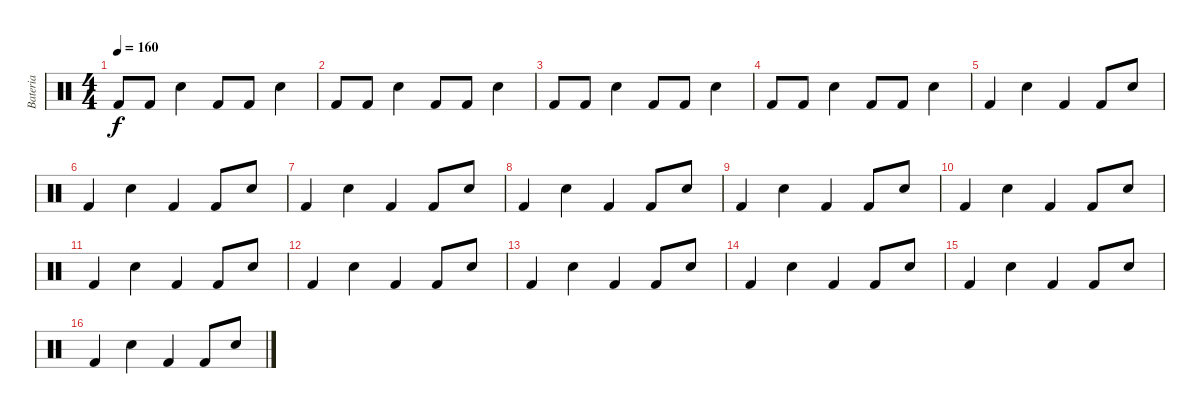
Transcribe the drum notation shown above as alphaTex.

\track ("Bateria" "Bateria") {instrument percussion}
\staff {score}
\articulation defaults
\ts (4 4)
\tempo 160
\clef neutral
\ks c "Kick (hit) 2".8{dy f} "Kick (hit) 2".8 "Snare (hit) 2".4 "Kick (hit) 2".8 "Kick (hit) 2".8 "Snare (hit) 2".4
|
"Kick (hit) 2".8 "Kick (hit) 2".8 "Snare (hit) 2".4 "Kick (hit) 2".8 "Kick (hit) 2".8 "Snare (hit) 2".4 |
"Kick (hit) 2".8 "Kick (hit) 2".8 "Snare (hit) 2".4 "Kick (hit) 2".8 "Kick (hit) 2".8 "Snare (hit) 2".4 |
"Kick (hit) 2".8 "Kick (hit) 2".8 "Snare (hit) 2".4 "Kick (hit) 2".8 "Kick (hit) 2".8 "Snare (hit) 2".4 |
"Kick (hit) 2".4 "Snare (hit) 2".4 "Kick (hit) 2".4 "Kick (hit) 2".8 "Snare (hit) 2".8 |
"Kick (hit) 2".4 "Snare (hit) 2".4 "Kick (hit) 2".4 "Kick (hit) 2".8 "Snare (hit) 2".8 |
"Kick (hit) 2".4 "Snare (hit) 2".4 "Kick (hit) 2".4 "Kick (hit) 2".8 "Snare (hit) 2".8 |
"Kick (hit) 2".4 "Snare (hit) 2".4 "Kick (hit) 2".4 "Kick (hit) 2".8 "Snare (hit) 2".8 |
"Kick (hit) 2".4 "Snare (hit) 2".4 "Kick (hit) 2".4 "Kick (hit) 2".8 "Snare (hit) 2".8 |
"Kick (hit) 2".4 "Snare (hit) 2".4 "Kick (hit) 2".4 "Kick (hit) 2".8 "Snare (hit) 2".8 |
"Kick (hit) 2".4 "Snare (hit) 2".4 "Kick (hit) 2".4 "Kick (hit) 2".8 "Snare (hit) 2".8 |
"Kick (hit) 2".4 "Snare (hit) 2".4 "Kick (hit) 2".4 "Kick (hit) 2".8 "Snare (hit) 2".8 |
"Kick (hit) 2".4 "Snare (hit) 2".4 "Kick (hit) 2".4 "Kick (hit) 2".8 "Snare (hit) 2".8 |
"Kick (hit) 2".4 "Snare (hit) 2".4 "Kick (hit) 2".4 "Kick (hit) 2".8 "Snare (hit) 2".8 |
"Kick (hit) 2".4 "Snare (hit) 2".4 "Kick (hit) 2".4 "Kick (hit) 2".8 "Snare (hit) 2".8 |
"Kick (hit) 2".4 "Snare (hit) 2".4 "Kick (hit) 2".4 "Kick (hit) 2".8 "Snare (hit) 2".8
